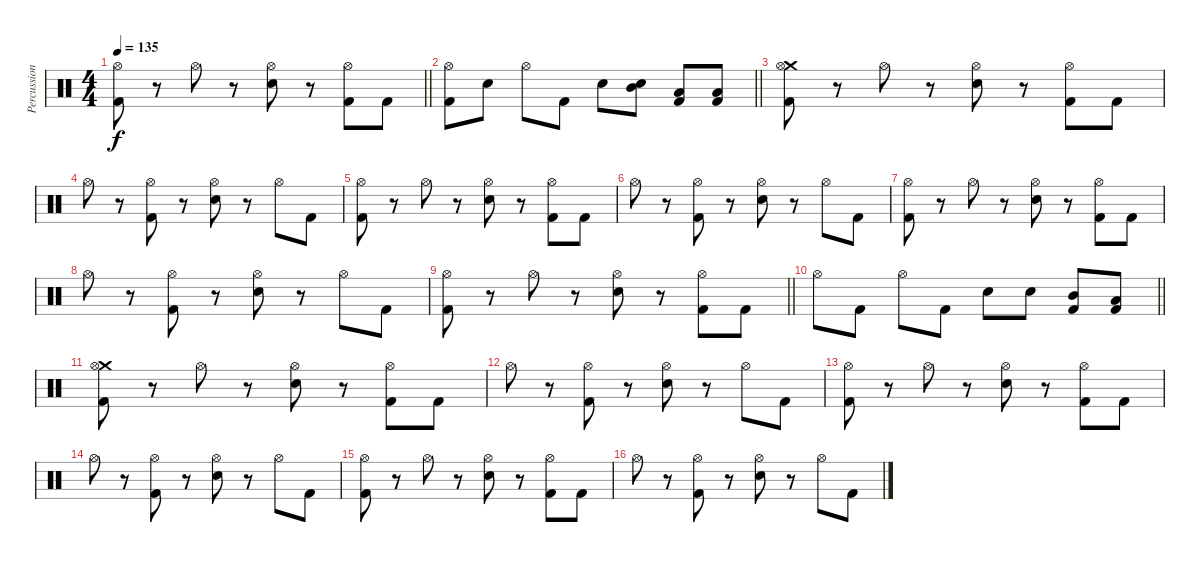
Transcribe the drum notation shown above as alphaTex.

\track ("Percussion" "Percussion") {instrument percussion}
\staff {score}
\articulation defaults
\ts (4 4)
\tempo 135
\clef neutral
\barLineRight lightlight
\ks c
("Hi-Hat (open)" "Kick (hit) 2").8{dy f} r.8 "Hi-Hat (open)".8 r.8 ("Hi-Hat (open)" "Electric Snare (hit)").8 r.8 ("Hi-Hat (open)" "Kick (hit) 2").8 "Kick (hit) 2".8 |
\barLineRight lightlight
("Hi-Hat (open)" "Kick (hit) 2").8 "Electric Snare (hit)".8 "Hi-Hat (open)".8 "Kick (hit) 2".8 "Electric Snare (hit)".8 ("Mid Tom (hit)" "Electric Snare (hit)").8 ("Low Tom (hit)" "Kick (hit) 2").8 ("Low Tom (hit)" "Kick (hit) 2").8 |
("Crash medium (hit)" "Hi-Hat (open)" "Kick (hit) 2").8 r.8 "Hi-Hat (open)".8 r.8 ("Hi-Hat (open)" "Electric Snare (hit)").8 r.8 ("Hi-Hat (open)" "Kick (hit) 2").8 "Kick (hit) 2".8 |
"Hi-Hat (open)".8 r.8 ("Hi-Hat (open)" "Kick (hit) 2").8 r.8 ("Hi-Hat (open)" "Electric Snare (hit)").8 r.8 "Hi-Hat (open)".8 "Kick (hit) 2".8 |
("Hi-Hat (open)" "Kick (hit) 2").8 r.8 "Hi-Hat (open)".8 r.8 ("Hi-Hat (open)" "Electric Snare (hit)").8 r.8 ("Hi-Hat (open)" "Kick (hit) 2").8 "Kick (hit) 2".8 |
"Hi-Hat (open)".8 r.8 ("Hi-Hat (open)" "Kick (hit) 2").8 r.8 ("Hi-Hat (open)" "Electric Snare (hit)").8 r.8 "Hi-Hat (open)".8 "Kick (hit) 2".8 |
("Hi-Hat (open)" "Kick (hit) 2").8 r.8 "Hi-Hat (open)".8 r.8 ("Hi-Hat (open)" "Electric Snare (hit)").8 r.8 ("Hi-Hat (open)" "Kick (hit) 2").8 "Kick (hit) 2".8 |
"Hi-Hat (open)".8 r.8 ("Hi-Hat (open)" "Kick (hit) 2").8 r.8 ("Hi-Hat (open)" "Electric Snare (hit)").8 r.8 "Hi-Hat (open)".8 "Kick (hit) 2".8 |
\barLineRight lightlight
("Hi-Hat (open)" "Kick (hit) 2").8 r.8 "Hi-Hat (open)".8 r.8 ("Hi-Hat (open)" "Electric Snare (hit)").8 r.8 ("Hi-Hat (open)" "Kick (hit) 2").8 "Kick (hit) 2".8 |
\barLineRight lightlight "Hi-Hat (open)".8 "Kick (hit) 2".8 "Hi-Hat (open)".8 "Kick (hit) 2".8 "Electric Snare (hit)".8 "Electric Snare (hit)".8
("Mid Tom (hit)" "Kick (hit) 2").8 ("Low Tom (hit)" "Kick (hit) 2").8 |
("Crash medium (hit)" "Hi-Hat (open)" "Kick (hit) 2").8 r.8 "Hi-Hat (open)".8 r.8 ("Hi-Hat (open)" "Electric Snare (hit)").8 r.8 ("Hi-Hat (open)" "Kick (hit) 2").8 "Kick (hit) 2".8 |
"Hi-Hat (open)".8 r.8 ("Hi-Hat (open)" "Kick (hit) 2").8 r.8 ("Hi-Hat (open)" "Electric Snare (hit)").8 r.8 "Hi-Hat (open)".8 "Kick (hit) 2".8 |
("Hi-Hat (open)" "Kick (hit) 2").8 r.8 "Hi-Hat (open)".8 r.8 ("Hi-Hat (open)" "Electric Snare (hit)").8 r.8 ("Hi-Hat (open)" "Kick (hit) 2").8 "Kick (hit) 2".8 |
"Hi-Hat (open)".8 r.8 ("Hi-Hat (open)" "Kick (hit) 2").8 r.8 ("Hi-Hat (open)" "Electric Snare (hit)").8 r.8 "Hi-Hat (open)".8 "Kick (hit) 2".8 |
("Hi-Hat (open)" "Kick (hit) 2").8 r.8 "Hi-Hat (open)".8 r.8 ("Hi-Hat (open)" "Electric Snare (hit)").8 r.8 ("Hi-Hat (open)" "Kick (hit) 2").8 "Kick (hit) 2".8 |
"Hi-Hat (open)".8 r.8 ("Hi-Hat (open)" "Kick (hit) 2").8 r.8 ("Hi-Hat (open)" "Electric Snare (hit)").8 r.8 "Hi-Hat (open)".8 "Kick (hit) 2".8
